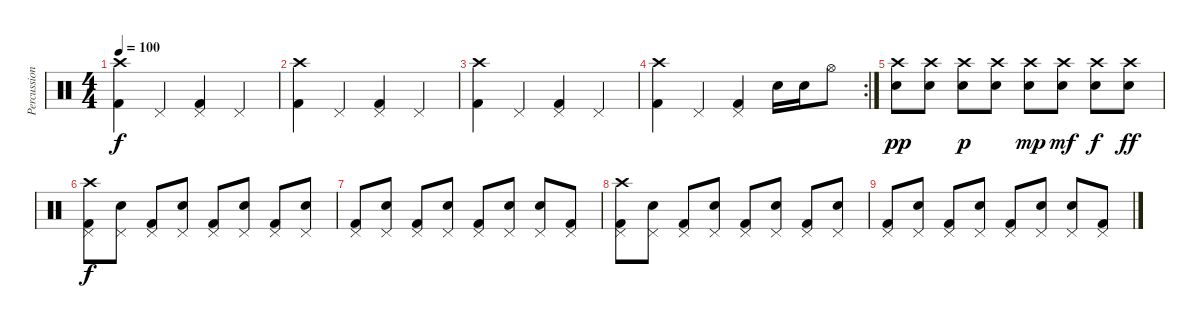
\track ("Percussion" "Percussion") {instrument percussion}
\staff {score}
\articulation defaults
\ts (4 4)
\tempo 100
\clef neutral
\ks c
("Crash high (hit)" "Kick (hit) 2").4{dy f} "Pedal Hi-Hat (hit)".4 ("Pedal Hi-Hat (hit)" "Kick (hit) 2").4 "Pedal Hi-Hat (hit)".4 |
("Crash high (hit)" "Kick (hit) 2").4 "Pedal Hi-Hat (hit)".4 ("Pedal Hi-Hat (hit)" "Kick (hit) 2").4 "Pedal Hi-Hat (hit)".4 |
("Crash high (hit)" "Kick (hit) 2").4 "Pedal Hi-Hat (hit)".4 ("Pedal Hi-Hat (hit)" "Kick (hit) 2").4 "Pedal Hi-Hat (hit)".4 |
\rc 2
("Crash high (hit)" "Kick (hit) 2").4 "Pedal Hi-Hat (hit)".4 ("Pedal Hi-Hat (hit)" "Kick (hit) 2").4 "Electric Snare (hit)".16 "Electric Snare (hit)".16 "Hi-Hat (open)".8 |
("Crash high (hit)" "Electric Snare (hit)").8{dy pp} ("Crash high (hit)" "Electric Snare (hit)").8 ("Crash high (hit)" "Electric Snare (hit)").8{dy p} ("Crash high (hit)" "Electric Snare (hit)").8 ("Crash high (hit)" "Electric Snare (hit)").8{dy mp} ("Crash high (hit)" "Electric Snare (hit)").8{dy mf} ("Crash high (hit)" "Electric Snare (hit)").8{dy f} ("Crash high (hit)" "Electric Snare (hit)").8{dy ff} |
("Pedal Hi-Hat (hit)" "Crash high (hit)" "Kick (hit) 2").8{dy f} ("Pedal Hi-Hat (hit)" "Electric Snare (hit)").8 ("Pedal Hi-Hat (hit)" "Kick (hit) 2").8 ("Pedal Hi-Hat (hit)" "Electric Snare (hit)").8 ("Pedal Hi-Hat (hit)" "Kick (hit) 2").8 ("Pedal Hi-Hat (hit)" "Electric Snare (hit)").8 ("Pedal Hi-Hat (hit)" "Kick (hit) 2").8 ("Pedal Hi-Hat (hit)" "Electric Snare (hit)").8 |
("Pedal Hi-Hat (hit)" "Kick (hit) 2").8 ("Pedal Hi-Hat (hit)" "Electric Snare (hit)").8 ("Pedal Hi-Hat (hit)" "Kick (hit) 2").8 ("Pedal Hi-Hat (hit)" "Electric Snare (hit)").8 ("Pedal Hi-Hat (hit)" "Kick (hit) 2").8 ("Pedal Hi-Hat (hit)" "Electric Snare (hit)").8 ("Pedal Hi-Hat (hit)" "Electric Snare (hit)").8 ("Pedal Hi-Hat (hit)" "Kick (hit) 2").8 |
("Pedal Hi-Hat (hit)" "Crash high (hit)" "Kick (hit) 2").8 ("Pedal Hi-Hat (hit)" "Electric Snare (hit)").8 ("Pedal Hi-Hat (hit)" "Kick (hit) 2").8 ("Pedal Hi-Hat (hit)" "Electric Snare (hit)").8 ("Pedal Hi-Hat (hit)" "Kick (hit) 2").8 ("Pedal Hi-Hat (hit)" "Electric Snare (hit)").8 ("Pedal Hi-Hat (hit)" "Kick (hit) 2").8 ("Pedal Hi-Hat (hit)" "Electric Snare (hit)").8 |
("Pedal Hi-Hat (hit)" "Kick (hit) 2").8 ("Pedal Hi-Hat (hit)" "Electric Snare (hit)").8 ("Pedal Hi-Hat (hit)" "Kick (hit) 2").8 ("Pedal Hi-Hat (hit)" "Electric Snare (hit)").8 ("Pedal Hi-Hat (hit)" "Kick (hit) 2").8 ("Pedal Hi-Hat (hit)" "Electric Snare (hit)").8 ("Pedal Hi-Hat (hit)" "Electric Snare (hit)").8 ("Pedal Hi-Hat (hit)" "Kick (hit) 2").8
